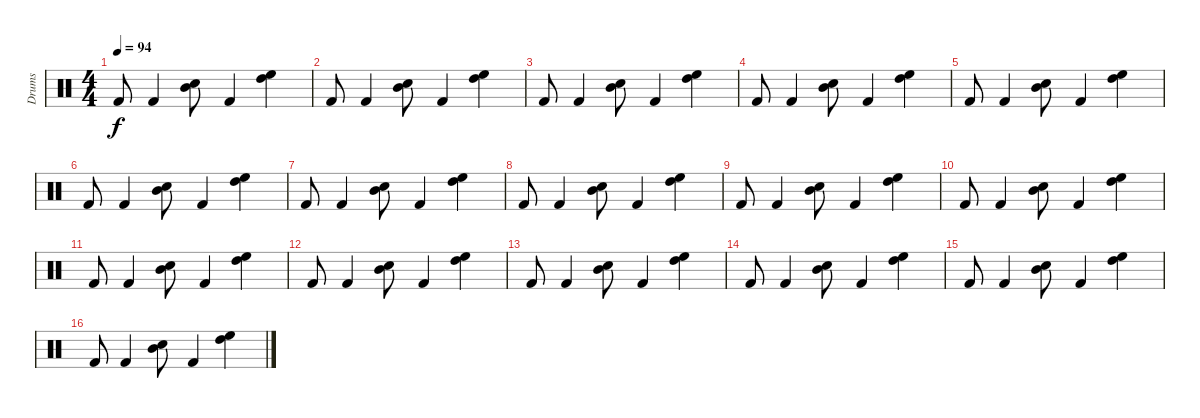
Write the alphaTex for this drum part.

\track ("Drums" "Drums") {instrument percussion}
\staff {score}
\articulation defaults
\ts (4 4)
\tempo 94
\clef neutral
\ks c "Kick (hit) 2".8{dy f} "Kick (hit) 2".4
("Mid Tom (hit)" "Electric Snare (hit)").8 "Kick (hit) 2".4 ("High Tom (hit)" "High Floor Tom (hit)").4 |
"Kick (hit) 2".8 "Kick (hit) 2".4 ("Mid Tom (hit)" "Electric Snare (hit)").8 "Kick (hit) 2".4 ("High Tom (hit)" "High Floor Tom (hit)").4 |
"Kick (hit) 2".8 "Kick (hit) 2".4 ("Mid Tom (hit)" "Electric Snare (hit)").8 "Kick (hit) 2".4 ("High Tom (hit)" "High Floor Tom (hit)").4 |
"Kick (hit) 2".8 "Kick (hit) 2".4 ("Mid Tom (hit)" "Electric Snare (hit)").8 "Kick (hit) 2".4 ("High Tom (hit)" "High Floor Tom (hit)").4 |
"Kick (hit) 2".8 "Kick (hit) 2".4 ("Mid Tom (hit)" "Electric Snare (hit)").8 "Kick (hit) 2".4 ("High Tom (hit)" "High Floor Tom (hit)").4 |
"Kick (hit) 2".8 "Kick (hit) 2".4 ("Mid Tom (hit)" "Electric Snare (hit)").8 "Kick (hit) 2".4 ("High Tom (hit)" "High Floor Tom (hit)").4 |
"Kick (hit) 2".8 "Kick (hit) 2".4 ("Mid Tom (hit)" "Electric Snare (hit)").8 "Kick (hit) 2".4 ("High Tom (hit)" "High Floor Tom (hit)").4 |
"Kick (hit) 2".8 "Kick (hit) 2".4 ("Mid Tom (hit)" "Electric Snare (hit)").8 "Kick (hit) 2".4 ("High Tom (hit)" "High Floor Tom (hit)").4 |
"Kick (hit) 2".8 "Kick (hit) 2".4 ("Mid Tom (hit)" "Electric Snare (hit)").8 "Kick (hit) 2".4 ("High Tom (hit)" "High Floor Tom (hit)").4 |
"Kick (hit) 2".8 "Kick (hit) 2".4 ("Mid Tom (hit)" "Electric Snare (hit)").8 "Kick (hit) 2".4 ("High Tom (hit)" "High Floor Tom (hit)").4 |
"Kick (hit) 2".8 "Kick (hit) 2".4 ("Mid Tom (hit)" "Electric Snare (hit)").8 "Kick (hit) 2".4 ("High Tom (hit)" "High Floor Tom (hit)").4 |
"Kick (hit) 2".8 "Kick (hit) 2".4 ("Mid Tom (hit)" "Electric Snare (hit)").8 "Kick (hit) 2".4 ("High Tom (hit)" "High Floor Tom (hit)").4 |
"Kick (hit) 2".8 "Kick (hit) 2".4 ("Mid Tom (hit)" "Electric Snare (hit)").8 "Kick (hit) 2".4 ("High Tom (hit)" "High Floor Tom (hit)").4 |
"Kick (hit) 2".8 "Kick (hit) 2".4 ("Mid Tom (hit)" "Electric Snare (hit)").8 "Kick (hit) 2".4 ("High Tom (hit)" "High Floor Tom (hit)").4 |
"Kick (hit) 2".8 "Kick (hit) 2".4 ("Mid Tom (hit)" "Electric Snare (hit)").8 "Kick (hit) 2".4 ("High Tom (hit)" "High Floor Tom (hit)").4 |
"Kick (hit) 2".8 "Kick (hit) 2".4 ("Mid Tom (hit)" "Electric Snare (hit)").8 "Kick (hit) 2".4 ("High Tom (hit)" "High Floor Tom (hit)").4
